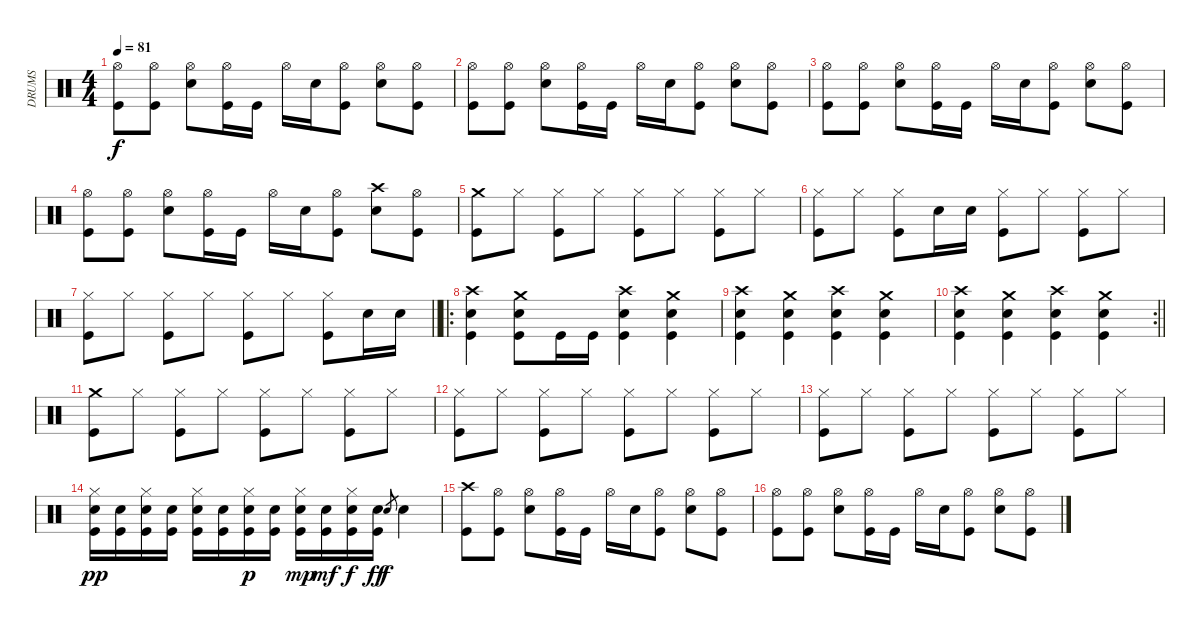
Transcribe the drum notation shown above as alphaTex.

\track ("DRUMS" "DRUMS") {instrument percussion}
\staff {score}
\articulation defaults
\ts (4 4)
\tempo 81
\clef neutral
\ks c
("Hi-Hat (open)" "Kick (hit)").8{dy f} ("Hi-Hat (open)" "Kick (hit)").8 ("Hi-Hat (open)" "Electric Snare (hit)").8 ("Hi-Hat (open)" "Kick (hit)").16 "Kick (hit)".16 "Hi-Hat (open)".16 "Electric Snare (hit)".16 ("Hi-Hat (open)" "Kick (hit)").8 ("Hi-Hat (open)" "Electric Snare (hit)").8 ("Hi-Hat (open)" "Kick (hit)").8 |
("Hi-Hat (open)" "Kick (hit)").8 ("Hi-Hat (open)" "Kick (hit)").8 ("Hi-Hat (open)" "Electric Snare (hit)").8 ("Hi-Hat (open)" "Kick (hit)").16 "Kick (hit)".16 "Hi-Hat (open)".16 "Electric Snare (hit)".16 ("Hi-Hat (open)" "Kick (hit)").8 ("Hi-Hat (open)" "Electric Snare (hit)").8 ("Hi-Hat (open)" "Kick (hit)").8 |
("Hi-Hat (open)" "Kick (hit)").8 ("Hi-Hat (open)" "Kick (hit)").8 ("Hi-Hat (open)" "Electric Snare (hit)").8 ("Hi-Hat (open)" "Kick (hit)").16 "Kick (hit)".16 "Hi-Hat (open)".16 "Electric Snare (hit)".16 ("Hi-Hat (open)" "Kick (hit)").8 ("Hi-Hat (open)" "Electric Snare (hit)").8 ("Hi-Hat (open)" "Kick (hit)").8 |
("Hi-Hat (open)" "Kick (hit)").8 ("Hi-Hat (open)" "Kick (hit)").8 ("Hi-Hat (open)" "Electric Snare (hit)").8 ("Hi-Hat (open)" "Kick (hit)").16 "Kick (hit)".16 "Hi-Hat (open)".16 "Electric Snare (hit)".16 ("Hi-Hat (open)" "Kick (hit)").8 ("Crash high (hit)" "Electric Snare (hit)").8 ("Hi-Hat (open)" "Kick (hit)").8 |
("Crash medium (hit)" "Kick (hit)").8 "Hi-Hat (closed)".8 ("Hi-Hat (closed)" "Kick (hit)").8 "Hi-Hat (closed)".8 ("Hi-Hat (closed)" "Kick (hit)").8 "Hi-Hat (closed)".8 ("Hi-Hat (closed)" "Kick (hit)").8 "Hi-Hat (closed)".8 |
("Hi-Hat (closed)" "Kick (hit)").8 "Hi-Hat (closed)".8 ("Hi-Hat (closed)" "Kick (hit)").8 "Electric Snare (hit)".16 "Electric Snare (hit)".16 ("Hi-Hat (closed)" "Kick (hit)").8 "Hi-Hat (closed)".8 ("Hi-Hat (closed)" "Kick (hit)").8 "Hi-Hat (closed)".8 |
\barLineRight lightlight
("Hi-Hat (closed)" "Kick (hit)").8 "Hi-Hat (closed)".8 ("Hi-Hat (closed)" "Kick (hit)").8 "Hi-Hat (closed)".8 ("Hi-Hat (closed)" "Kick (hit)").8 "Hi-Hat (closed)".8 ("Hi-Hat (closed)" "Kick (hit)").8 "Electric Snare (hit)".16 "Electric Snare (hit)".16 |
\ro
("Crash high (hit)" "Electric Snare (hit)" "Kick (hit)").4 ("Crash medium (hit)" "Electric Snare (hit)" "Kick (hit)").8 "Kick (hit)".16 "Kick (hit)".16 ("Crash high (hit)" "Electric Snare (hit)" "Kick (hit)").4 ("Crash medium (hit)" "Electric Snare (hit)" "Kick (hit)").4 |
("Crash high (hit)" "Electric Snare (hit)" "Kick (hit)").4 ("Crash medium (hit)" "Electric Snare (hit)" "Kick (hit)").4 ("Crash high (hit)" "Electric Snare (hit)" "Kick (hit)").4 ("Crash medium (hit)" "Electric Snare (hit)" "Kick (hit)").4 |
\rc 2
\barLineRight lightlight
("Crash high (hit)" "Electric Snare (hit)" "Kick (hit)").4 ("Crash medium (hit)" "Electric Snare (hit)" "Kick (hit)").4 ("Crash high (hit)" "Electric Snare (hit)" "Kick (hit)").4 ("Crash medium (hit)" "Electric Snare (hit)" "Kick (hit)").4 |
("Crash medium (hit)" "Kick (hit)").8 "Hi-Hat (closed)".8 ("Hi-Hat (closed)" "Kick (hit)").8 "Hi-Hat (closed)".8 ("Hi-Hat (closed)" "Kick (hit)").8 "Hi-Hat (closed)".8 ("Hi-Hat (closed)" "Kick (hit)").8 "Hi-Hat (closed)".8 |
("Hi-Hat (closed)" "Kick (hit)").8 "Hi-Hat (closed)".8 ("Hi-Hat (closed)" "Kick (hit)").8 "Hi-Hat (closed)".8 ("Hi-Hat (closed)" "Kick (hit)").8 "Hi-Hat (closed)".8 ("Hi-Hat (closed)" "Kick (hit)").8 "Hi-Hat (closed)".8 |
("Hi-Hat (closed)" "Kick (hit)").8 "Hi-Hat (closed)".8 ("Hi-Hat (closed)" "Kick (hit)").8 "Hi-Hat (closed)".8 ("Hi-Hat (closed)" "Kick (hit)").8 "Hi-Hat (closed)".8 ("Hi-Hat (closed)" "Kick (hit)").8 "Hi-Hat (closed)".8 |
("Kick (hit)" "Hi-Hat (closed)" "Electric Snare (hit)").16{dy pp} ("Kick (hit)" "Electric Snare (hit)").16 ("Kick (hit)" "Hi-Hat (closed)" "Electric Snare (hit)").16 ("Kick (hit)" "Electric Snare (hit)").16 ("Kick (hit)" "Hi-Hat (closed)" "Electric Snare (hit)").16 ("Kick (hit)" "Electric Snare (hit)").16 ("Kick (hit)" "Hi-Hat (closed)" "Electric Snare (hit)").16{dy p} ("Kick (hit)" "Electric Snare (hit)").16 ("Kick (hit)" "Hi-Hat (closed)" "Electric Snare (hit)").16{dy mp} ("Kick (hit)" "Electric Snare (hit)").16{dy mf} ("Kick (hit)" "Hi-Hat (closed)" "Electric Snare (hit)").16{dy f} ("Kick (hit)" "Electric Snare (hit)").16{dy ff} "Electric Snare (hit)".8{gr dy f} "Electric Snare (hit)".4 |
("Crash high (hit)" "Kick (hit)").8 ("Hi-Hat (open)" "Kick (hit)").8 ("Hi-Hat (open)" "Electric Snare (hit)").8 ("Hi-Hat (open)" "Kick (hit)").16 "Kick (hit)".16 "Hi-Hat (open)".16 "Electric Snare (hit)".16 ("Hi-Hat (open)" "Kick (hit)").8 ("Hi-Hat (open)" "Electric Snare (hit)").8 ("Hi-Hat (open)" "Kick (hit)").8 |
("Hi-Hat (open)" "Kick (hit)").8 ("Hi-Hat (open)" "Kick (hit)").8 ("Hi-Hat (open)" "Electric Snare (hit)").8 ("Hi-Hat (open)" "Kick (hit)").16 "Kick (hit)".16 "Hi-Hat (open)".16 "Electric Snare (hit)".16 ("Hi-Hat (open)" "Kick (hit)").8 ("Hi-Hat (open)" "Electric Snare (hit)").8 ("Hi-Hat (open)" "Kick (hit)").8
